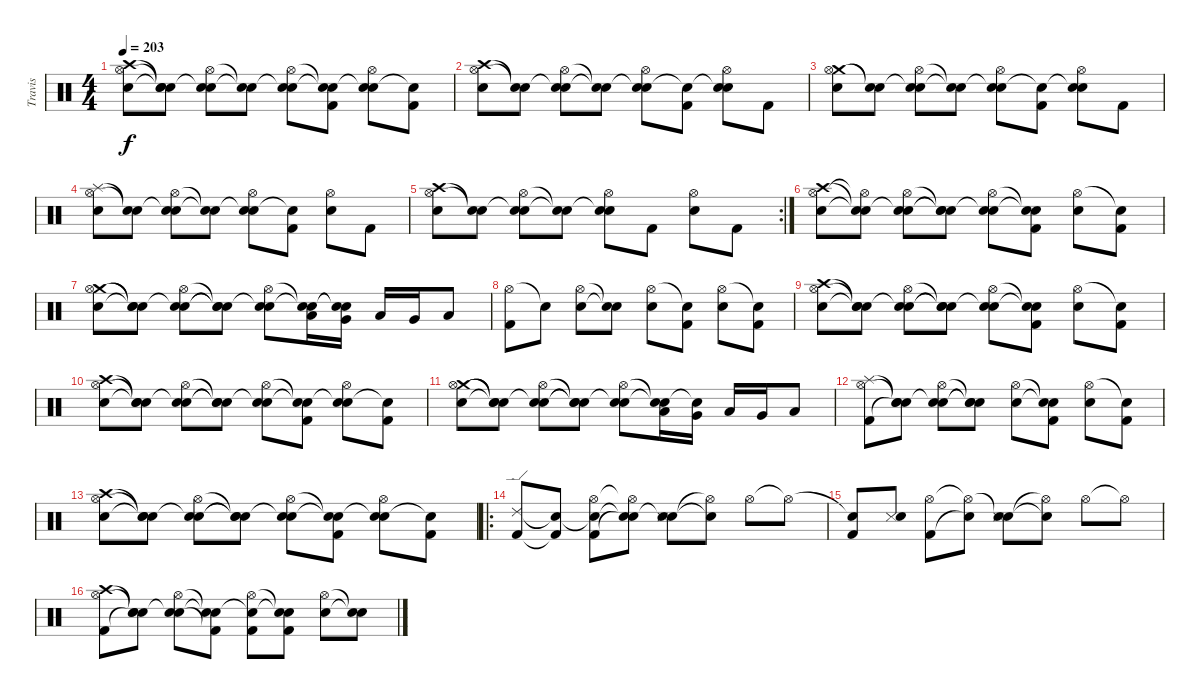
\track ("Travis" "Travis") {instrument percussion}
\staff {score}
\articulation defaults
\ts (4 4)
\tempo 203
\clef neutral
\ks c
("Crash high (hit)" "Hi-Hat (open)" "Electric Snare (hit)").8{dy f} ("Snare (hit)"{t} "Snare (hit)"{t} "Snare (hit)"{t}).8 ("Snare (hit)"{t} "Hi-Hat (open)" "Electric Snare (hit)").8 ("Snare (hit)"{t} "Snare (hit)"{t}).8 ("Snare (hit)"{t} "Hi-Hat (open)" "Electric Snare (hit)").8 ("Snare (hit)"{t} "Snare (hit)"{t} "Kick (hit) 2").8 ("Snare (hit)"{t} "Hi-Hat (open)" "Electric Snare (hit)").8 ("Snare (hit)"{t} "Kick (hit) 2").8 |
("Crash high (hit)" "Hi-Hat (open)" "Electric Snare (hit)").8 ("Snare (hit)"{t} "Snare (hit)"{t}).8 ("Snare (hit)"{t} "Hi-Hat (open)" "Electric Snare (hit)").8 ("Snare (hit)"{t} "Snare (hit)"{t}).8 ("Snare (hit)"{t} "Hi-Hat (open)" "Electric Snare (hit)").8 ("Snare (hit)"{t} "Kick (hit) 2").8 ("Snare (hit)"{t} "Hi-Hat (open)" "Electric Snare (hit)").8 "Kick (hit) 2".8 |
("Crash medium (hit)" "Hi-Hat (open)" "Electric Snare (hit)").8 ("Snare (hit)"{t} "Snare (hit)"{t}).8 ("Snare (hit)"{t} "Hi-Hat (open)" "Electric Snare (hit)").8 ("Snare (hit)"{t} "Snare (hit)"{t}).8 ("Snare (hit)"{t} "Hi-Hat (open)" "Electric Snare (hit)").8 ("Snare (hit)"{t} "Kick (hit) 2").8 ("Snare (hit)"{t} "Hi-Hat (open)" "Electric Snare (hit)").8 "Kick (hit) 2".8 |
("Splash (hit)" "Hi-Hat (open)" "Electric Snare (hit)").8 ("Snare (hit)"{t} "Snare (hit)"{t}).8 ("Snare (hit)"{t} "Hi-Hat (open)" "Electric Snare (hit)").8 ("Snare (hit)"{t} "Snare (hit)"{t}).8 ("Snare (hit)"{t} "Hi-Hat (open)" "Electric Snare (hit)").8 ("Snare (hit)"{t} "Kick (hit) 2").8 ("Hi-Hat (open)" "Electric Snare (hit)").8 "Kick (hit) 2".8 |
\rc 2
("Crash high (hit)" "Hi-Hat (open)" "Electric Snare (hit)").8 ("Snare (hit)"{t} "Snare (hit)"{t}).8 ("Snare (hit)"{t} "Hi-Hat (open)" "Electric Snare (hit)").8 ("Snare (hit)"{t} "Snare (hit)"{t}).8 ("Snare (hit)"{t} "Hi-Hat (open)" "Electric Snare (hit)").8 "Kick (hit) 2".8 ("Hi-Hat (open)" "Electric Snare (hit)").8 "Kick (hit) 2".8 |
("Crash high (hit)" "Hi-Hat (open)" "Electric Snare (hit)").8 ("Snare (hit)"{t} "Hi-Hat (open)"{t} "Snare (hit)"{t}).8 ("Snare (hit)"{t} "Hi-Hat (open)" "Electric Snare (hit)").8 ("Snare (hit)"{t} "Snare (hit)"{t} "Snare (hit)"{t}).8 ("Snare (hit)"{t} "Hi-Hat (open)" "Electric Snare (hit)").8 ("Snare (hit)"{t} "Snare (hit)"{t} "Kick (hit) 2").8 ("Hi-Hat (open)" "Electric Snare (hit)").8 ("Snare (hit)"{t} "Kick (hit) 2").8 |
("Crash medium (hit)" "Hi-Hat (open)" "Electric Snare (hit)").8 ("Snare (hit)"{t} "Snare (hit)"{t} "Snare (hit)"{t}).8 ("Snare (hit)"{t} "Hi-Hat (open)" "Electric Snare (hit)").8 ("Snare (hit)"{t} "Snare (hit)"{t} "Snare (hit)"{t}).8 ("Snare (hit)"{t} "Hi-Hat (open)" "Electric Snare (hit)").8 ("Snare (hit)"{t} "Snare (hit)"{t} "Low Tom (hit)").16 ("Snare (hit)"{t} "Snare (hit)"{t} "Very Low Tom (hit)").16 "Low Tom (hit)".16 "Very Low Tom (hit)".16 "Low Tom (hit)".8 |
("Hi-Hat (open)" "Kick (hit) 2").8 "Snare (hit)"{t}.8 ("Hi-Hat (open)" "Electric Snare (hit)").8 ("Snare (hit)"{t} "Snare (hit)"{t}).8 ("Hi-Hat (open)" "Electric Snare (hit)").8 ("Snare (hit)"{t} "Kick (hit) 2").8 ("Hi-Hat (open)" "Electric Snare (hit)").8 ("Snare (hit)"{t} "Kick (hit) 2").8 |
("Crash high (hit)" "Hi-Hat (open)" "Electric Snare (hit)").8 ("Snare (hit)"{t} "Snare (hit)"{t} "Snare (hit)"{t}).8 ("Snare (hit)"{t} "Hi-Hat (open)" "Electric Snare (hit)").8 ("Snare (hit)"{t} "Snare (hit)"{t} "Snare (hit)"{t}).8 ("Snare (hit)"{t} "Hi-Hat (open)" "Electric Snare (hit)").8 ("Snare (hit)"{t} "Snare (hit)"{t} "Kick (hit) 2").8 ("Hi-Hat (open)" "Electric Snare (hit)").8 ("Snare (hit)"{t} "Kick (hit) 2").8 |
("Crash high (hit)" "Hi-Hat (open)" "Electric Snare (hit)").8 ("Snare (hit)"{t} "Snare (hit)"{t} "Snare (hit)"{t}).8 ("Snare (hit)"{t} "Hi-Hat (open)" "Electric Snare (hit)").8 ("Snare (hit)"{t} "Snare (hit)"{t} "Snare (hit)"{t}).8 ("Snare (hit)"{t} "Hi-Hat (open)" "Electric Snare (hit)").8 ("Snare (hit)"{t} "Snare (hit)"{t} "Kick (hit) 2").8 ("Snare (hit)"{t} "Hi-Hat (open)" "Electric Snare (hit)").8 ("Snare (hit)"{t} "Kick (hit) 2").8 |
("Crash medium (hit)" "Hi-Hat (open)" "Electric Snare (hit)").8 ("Snare (hit)"{t} "Snare (hit)"{t} "Snare (hit)"{t}).8 ("Snare (hit)"{t} "Hi-Hat (open)" "Electric Snare (hit)").8 ("Snare (hit)"{t} "Snare (hit)"{t} "Snare (hit)"{t}).8 ("Snare (hit)"{t} "Hi-Hat (open)" "Electric Snare (hit)").8 ("Snare (hit)"{t} "Snare (hit)"{t} "Low Tom (hit)").16 ("Snare (hit)"{t} "Very Low Tom (hit)").16 "Low Tom (hit)".16 "Very Low Tom (hit)".16 "Low Tom (hit)".8 |
("Splash (hit)" "Hi-Hat (open)" "Kick (hit) 2").8 ("Snare (hit)"{t} "Snare (hit)"{t} "Snare (hit)"{t}).8 ("Snare (hit)"{t} "Hi-Hat (open)" "Electric Snare (hit)").8 ("Snare (hit)"{t} "Snare (hit)"{t} "Snare (hit)"{t}).8 ("Hi-Hat (open)" "Electric Snare (hit)").8 ("Snare (hit)"{t} "Snare (hit)"{t} "Kick (hit) 2").8 ("Hi-Hat (open)" "Electric Snare (hit)").8 ("Snare (hit)"{t} "Kick (hit) 2").8 |
("Crash high (hit)" "Hi-Hat (open)" "Electric Snare (hit)").8 ("Snare (hit)"{t} "Snare (hit)"{t} "Snare (hit)"{t}).8 ("Snare (hit)"{t} "Hi-Hat (open)" "Electric Snare (hit)").8 ("Snare (hit)"{t} "Snare (hit)"{t} "Snare (hit)"{t}).8 ("Snare (hit)"{t} "Hi-Hat (open)" "Electric Snare (hit)").8 ("Snare (hit)"{t} "Snare (hit)"{t} "Kick (hit) 2").8 ("Snare (hit)"{t} "Hi-Hat (open)" "Electric Snare (hit)").8 ("Snare (hit)"{t} "Kick (hit) 2").8 |
\ro
("Ride (edge) 2" "Kick (hit) 2").8 ("Snare (hit)"{t} "Kick (hit) 2"{t}).8 ("Snare (hit)"{t} "Hi-Hat (open)" "Kick (hit) 2").8 ("Snare (hit)"{t} "Hi-Hat (open)"{t} "Snare (hit)"{t}).8 ("Snare (hit)"{t} "Snare (side stick) 3" "Electric Snare (hit)").8 ("Hi-Hat (open)"{t} "Snare (hit)"{t}).8 "Hi-Hat (open)".8 "Hi-Hat (open)"{t}.8 |
("Snare (hit)"{t} "Kick (hit) 2").8 ("Snare (side stick) 3" "Electric Snare (hit)").8 ("Hi-Hat (open)" "Kick (hit) 2").8 ("Hi-Hat (open)"{t} "Snare (hit)"{t}).8 ("Snare (hit)"{t} "Snare (side stick) 3" "Electric Snare (hit)").8 ("Hi-Hat (open)"{t} "Snare (hit)"{t}).8 "Hi-Hat (open)".8 "Hi-Hat (open)"{t}.8 |
("Crash high (hit)" "Hi-Hat (open)" "Kick (hit) 2").8 ("Snare (hit)"{t} "Snare (hit)"{t} "Snare (hit)"{t}).8 ("Snare (hit)"{t} "Hi-Hat (open)" "Electric Snare (hit)").8 ("Snare (hit)"{t} "Snare (hit)"{t} "Kick (hit) 2"{t}).8 ("Snare (hit)"{t} "Hi-Hat (open)" "Kick (hit) 2").8 ("Snare (hit)"{t} "Snare (hit)"{t} "Kick (hit) 2").8 ("Hi-Hat (open)" "Electric Snare (hit)").8 ("Snare (hit)"{t} "Snare (hit)"{t}).8
